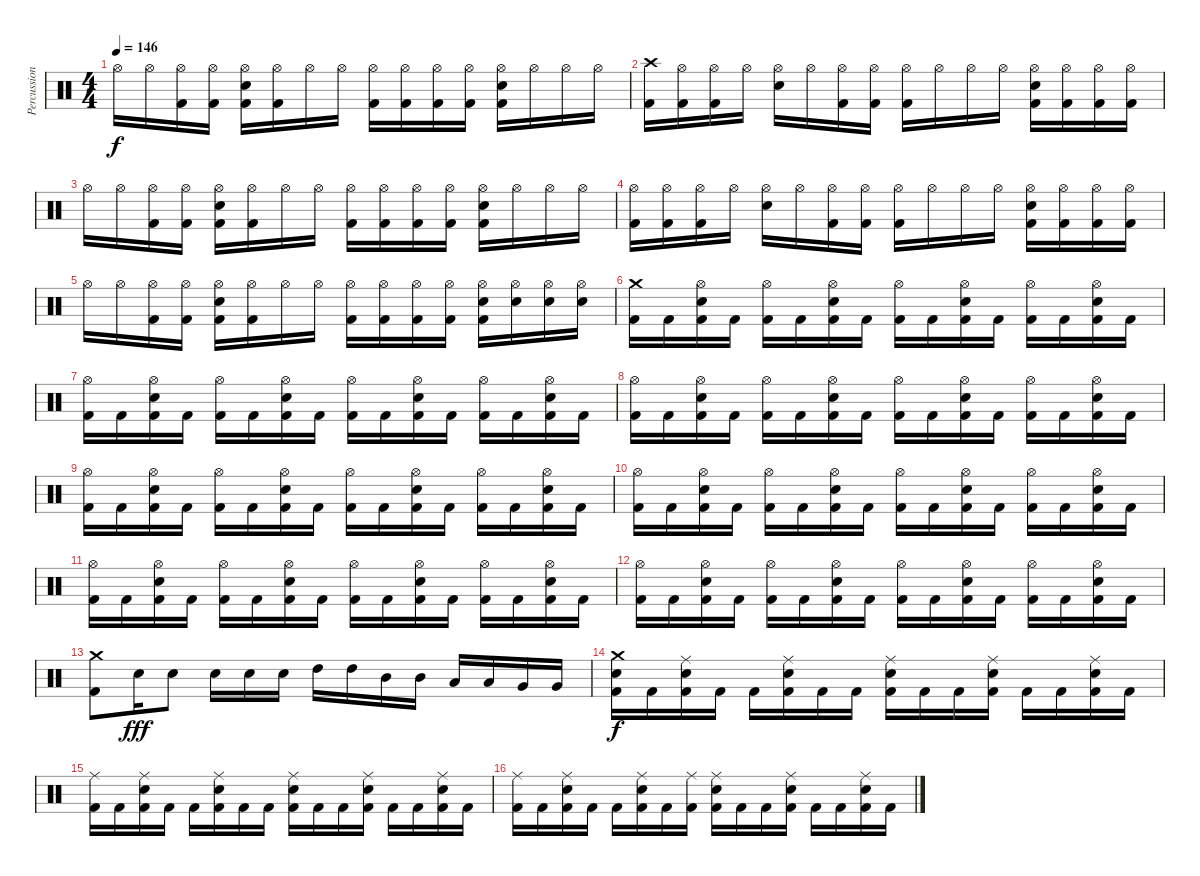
\track ("Percussion" "Percussion") {instrument percussion}
\staff {score}
\articulation defaults
\ts (4 4)
\tempo 146
\clef neutral
\ks c "Hi-Hat (open)".16{dy f} "Hi-Hat (open)".16
("Kick (hit) 2" "Hi-Hat (open)").16 ("Kick (hit) 2" "Hi-Hat (open)").16 ("Kick (hit) 2" "Electric Snare (hit)" "Hi-Hat (open)").16 ("Kick (hit) 2" "Hi-Hat (open)").16 "Hi-Hat (open)".16 "Hi-Hat (open)".16 ("Kick (hit) 2" "Hi-Hat (open)").16 ("Kick (hit) 2" "Hi-Hat (open)").16 ("Kick (hit) 2" "Hi-Hat (open)").16 ("Kick (hit) 2" "Hi-Hat (open)").16 ("Kick (hit) 2" "Electric Snare (hit)" "Hi-Hat (open)").16 "Hi-Hat (open)".16 "Hi-Hat (open)".16 "Hi-Hat (open)".16 |
("Kick (hit) 2" "Crash high (hit)").16 ("Kick (hit) 2" "Hi-Hat (open)").16 ("Kick (hit) 2" "Hi-Hat (open)").16 "Hi-Hat (open)".16 ("Electric Snare (hit)" "Hi-Hat (open)").16 "Hi-Hat (open)".16 ("Kick (hit) 2" "Hi-Hat (open)").16 ("Kick (hit) 2" "Hi-Hat (open)").16 ("Kick (hit) 2" "Hi-Hat (open)").16 "Hi-Hat (open)".16 "Hi-Hat (open)".16 "Hi-Hat (open)".16 ("Kick (hit) 2" "Electric Snare (hit)" "Hi-Hat (open)").16 ("Kick (hit) 2" "Hi-Hat (open)").16 ("Kick (hit) 2" "Hi-Hat (open)").16 ("Kick (hit) 2" "Hi-Hat (open)").16 |
"Hi-Hat (open)".16 "Hi-Hat (open)".16 ("Kick (hit) 2" "Hi-Hat (open)").16 ("Kick (hit) 2" "Hi-Hat (open)").16 ("Kick (hit) 2" "Electric Snare (hit)" "Hi-Hat (open)").16 ("Kick (hit) 2" "Hi-Hat (open)").16 "Hi-Hat (open)".16 "Hi-Hat (open)".16 ("Kick (hit) 2" "Hi-Hat (open)").16 ("Kick (hit) 2" "Hi-Hat (open)").16 ("Kick (hit) 2" "Hi-Hat (open)").16 ("Kick (hit) 2" "Hi-Hat (open)").16 ("Kick (hit) 2" "Electric Snare (hit)" "Hi-Hat (open)").16 "Hi-Hat (open)".16 "Hi-Hat (open)".16 "Hi-Hat (open)".16 |
("Kick (hit) 2" "Hi-Hat (open)").16 ("Kick (hit) 2" "Hi-Hat (open)").16 ("Kick (hit) 2" "Hi-Hat (open)").16 "Hi-Hat (open)".16 ("Electric Snare (hit)" "Hi-Hat (open)").16 "Hi-Hat (open)".16 ("Kick (hit) 2" "Hi-Hat (open)").16 ("Kick (hit) 2" "Hi-Hat (open)").16 ("Kick (hit) 2" "Hi-Hat (open)").16 "Hi-Hat (open)".16 "Hi-Hat (open)".16 "Hi-Hat (open)".16 ("Kick (hit) 2" "Electric Snare (hit)" "Hi-Hat (open)").16 ("Kick (hit) 2" "Hi-Hat (open)").16 ("Kick (hit) 2" "Hi-Hat (open)").16 ("Kick (hit) 2" "Hi-Hat (open)").16 |
"Hi-Hat (open)".16 "Hi-Hat (open)".16 ("Kick (hit) 2" "Hi-Hat (open)").16 ("Kick (hit) 2" "Hi-Hat (open)").16 ("Kick (hit) 2" "Electric Snare (hit)" "Hi-Hat (open)").16 ("Kick (hit) 2" "Hi-Hat (open)").16 "Hi-Hat (open)".16 "Hi-Hat (open)".16 ("Kick (hit) 2" "Hi-Hat (open)").16 ("Kick (hit) 2" "Hi-Hat (open)").16 ("Kick (hit) 2" "Hi-Hat (open)").16 ("Kick (hit) 2" "Hi-Hat (open)").16 ("Kick (hit) 2" "Electric Snare (hit)" "Hi-Hat (open)").16 ("Electric Snare (hit)" "Hi-Hat (open)").16 ("Electric Snare (hit)" "Hi-Hat (open)").16 ("Electric Snare (hit)" "Hi-Hat (open)").16 |
("Kick (hit) 2" "Crash medium (hit)").16 "Kick (hit) 2".16 ("Kick (hit) 2" "Electric Snare (hit)" "Hi-Hat (open)").16 "Kick (hit) 2".16 ("Kick (hit) 2" "Hi-Hat (open)").16 "Kick (hit) 2".16 ("Kick (hit) 2" "Electric Snare (hit)" "Hi-Hat (open)").16 "Kick (hit) 2".16 ("Kick (hit) 2" "Hi-Hat (open)").16 "Kick (hit) 2".16 ("Kick (hit) 2" "Electric Snare (hit)" "Hi-Hat (open)").16 "Kick (hit) 2".16 ("Kick (hit) 2" "Hi-Hat (open)").16 "Kick (hit) 2".16 ("Kick (hit) 2" "Electric Snare (hit)" "Hi-Hat (open)").16 "Kick (hit) 2".16 |
("Kick (hit) 2" "Hi-Hat (open)").16 "Kick (hit) 2".16 ("Kick (hit) 2" "Electric Snare (hit)" "Hi-Hat (open)").16 "Kick (hit) 2".16 ("Kick (hit) 2" "Hi-Hat (open)").16 "Kick (hit) 2".16 ("Kick (hit) 2" "Electric Snare (hit)" "Hi-Hat (open)").16 "Kick (hit) 2".16 ("Kick (hit) 2" "Hi-Hat (open)").16 "Kick (hit) 2".16 ("Kick (hit) 2" "Electric Snare (hit)" "Hi-Hat (open)").16 "Kick (hit) 2".16 ("Kick (hit) 2" "Hi-Hat (open)").16 "Kick (hit) 2".16 ("Kick (hit) 2" "Electric Snare (hit)" "Hi-Hat (open)").16 "Kick (hit) 2".16 |
("Kick (hit) 2" "Hi-Hat (open)").16 "Kick (hit) 2".16 ("Kick (hit) 2" "Electric Snare (hit)" "Hi-Hat (open)").16 "Kick (hit) 2".16 ("Kick (hit) 2" "Hi-Hat (open)").16 "Kick (hit) 2".16 ("Kick (hit) 2" "Electric Snare (hit)" "Hi-Hat (open)").16 "Kick (hit) 2".16 ("Kick (hit) 2" "Hi-Hat (open)").16 "Kick (hit) 2".16 ("Kick (hit) 2" "Electric Snare (hit)" "Hi-Hat (open)").16 "Kick (hit) 2".16 ("Kick (hit) 2" "Hi-Hat (open)").16 "Kick (hit) 2".16 ("Kick (hit) 2" "Electric Snare (hit)" "Hi-Hat (open)").16 "Kick (hit) 2".16 |
("Kick (hit) 2" "Hi-Hat (open)").16 "Kick (hit) 2".16 ("Kick (hit) 2" "Electric Snare (hit)" "Hi-Hat (open)").16 "Kick (hit) 2".16 ("Kick (hit) 2" "Hi-Hat (open)").16 "Kick (hit) 2".16 ("Kick (hit) 2" "Electric Snare (hit)" "Hi-Hat (open)").16 "Kick (hit) 2".16 ("Kick (hit) 2" "Hi-Hat (open)").16 "Kick (hit) 2".16 ("Kick (hit) 2" "Electric Snare (hit)" "Hi-Hat (open)").16 "Kick (hit) 2".16 ("Kick (hit) 2" "Hi-Hat (open)").16 "Kick (hit) 2".16 ("Kick (hit) 2" "Electric Snare (hit)" "Hi-Hat (open)").16 "Kick (hit) 2".16 |
("Kick (hit) 2" "Hi-Hat (open)").16 "Kick (hit) 2".16 ("Kick (hit) 2" "Electric Snare (hit)" "Hi-Hat (open)").16 "Kick (hit) 2".16 ("Kick (hit) 2" "Hi-Hat (open)").16 "Kick (hit) 2".16 ("Kick (hit) 2" "Electric Snare (hit)" "Hi-Hat (open)").16 "Kick (hit) 2".16 ("Kick (hit) 2" "Hi-Hat (open)").16 "Kick (hit) 2".16 ("Kick (hit) 2" "Electric Snare (hit)" "Hi-Hat (open)").16 "Kick (hit) 2".16 ("Kick (hit) 2" "Hi-Hat (open)").16 "Kick (hit) 2".16 ("Kick (hit) 2" "Electric Snare (hit)" "Hi-Hat (open)").16 "Kick (hit) 2".16 |
("Kick (hit) 2" "Hi-Hat (open)").16 "Kick (hit) 2".16 ("Kick (hit) 2" "Electric Snare (hit)" "Hi-Hat (open)").16 "Kick (hit) 2".16 ("Kick (hit) 2" "Hi-Hat (open)").16 "Kick (hit) 2".16 ("Kick (hit) 2" "Electric Snare (hit)" "Hi-Hat (open)").16 "Kick (hit) 2".16 ("Kick (hit) 2" "Hi-Hat (open)").16 "Kick (hit) 2".16 ("Kick (hit) 2" "Electric Snare (hit)" "Hi-Hat (open)").16 "Kick (hit) 2".16 ("Kick (hit) 2" "Hi-Hat (open)").16 "Kick (hit) 2".16 ("Kick (hit) 2" "Electric Snare (hit)" "Hi-Hat (open)").16 "Kick (hit) 2".16 |
("Kick (hit) 2" "Hi-Hat (open)").16 "Kick (hit) 2".16 ("Kick (hit) 2" "Electric Snare (hit)" "Hi-Hat (open)").16 "Kick (hit) 2".16 ("Kick (hit) 2" "Hi-Hat (open)").16 "Kick (hit) 2".16 ("Kick (hit) 2" "Electric Snare (hit)" "Hi-Hat (open)").16 "Kick (hit) 2".16 ("Kick (hit) 2" "Hi-Hat (open)").16 "Kick (hit) 2".16 ("Kick (hit) 2" "Electric Snare (hit)" "Hi-Hat (open)").16 "Kick (hit) 2".16 ("Kick (hit) 2" "Hi-Hat (open)").16 "Kick (hit) 2".16 ("Kick (hit) 2" "Electric Snare (hit)" "Hi-Hat (open)").16 "Kick (hit) 2".16 |
("Kick (hit) 2" "Crash medium (hit)").8 "Electric Snare (hit)".16{dy fff} "Electric Snare (hit)".8 "Electric Snare (hit)".16 "Electric Snare (hit)".16 "Electric Snare (hit)".16 "High Tom (hit)".16 "High Tom (hit)".16 "Mid Tom (hit)".16 "Mid Tom (hit)".16 "Low Tom (hit)".16 "Low Tom (hit)".16 "Very Low Tom (hit)".16 "Very Low Tom (hit)".16 |
("Kick (hit) 2" "Electric Snare (hit)" "Crash medium (hit)").16{dy f} "Kick (hit) 2".16 ("Kick (hit) 2" "Electric Snare (hit)" "Ride (middle)").16 "Kick (hit) 2".16 "Kick (hit) 2".16 ("Kick (hit) 2" "Electric Snare (hit)" "Ride (middle)").16 "Kick (hit) 2".16 "Kick (hit) 2".16 ("Kick (hit) 2" "Electric Snare (hit)" "Ride (middle)").16 "Kick (hit) 2".16 "Kick (hit) 2".16 ("Kick (hit) 2" "Electric Snare (hit)" "Ride (middle)").16 "Kick (hit) 2".16 "Kick (hit) 2".16 ("Kick (hit) 2" "Electric Snare (hit)" "Ride (middle)").16 "Kick (hit) 2".16 |
("Kick (hit) 2" "Ride (middle)").16 "Kick (hit) 2".16 ("Kick (hit) 2" "Electric Snare (hit)" "Ride (middle)").16 "Kick (hit) 2".16 "Kick (hit) 2".16 ("Kick (hit) 2" "Electric Snare (hit)" "Ride (middle)").16 "Kick (hit) 2".16 "Kick (hit) 2".16 ("Kick (hit) 2" "Electric Snare (hit)" "Ride (middle)").16 "Kick (hit) 2".16 "Kick (hit) 2".16 ("Kick (hit) 2" "Electric Snare (hit)" "Ride (middle)").16 "Kick (hit) 2".16 "Kick (hit) 2".16 ("Kick (hit) 2" "Electric Snare (hit)" "Ride (middle)").16 "Kick (hit) 2".16 |
("Kick (hit) 2" "Ride (middle)").16 "Kick (hit) 2".16 ("Kick (hit) 2" "Electric Snare (hit)" "Ride (middle)").16 "Kick (hit) 2".16 "Kick (hit) 2".16 ("Kick (hit) 2" "Electric Snare (hit)" "Ride (middle)").16 "Kick (hit) 2".16 ("Kick (hit) 2" "Ride (middle)").16 ("Kick (hit) 2" "Electric Snare (hit)" "Ride (middle)").16 "Kick (hit) 2".16 "Kick (hit) 2".16 ("Kick (hit) 2" "Electric Snare (hit)" "Ride (middle)").16 "Kick (hit) 2".16 "Kick (hit) 2".16 ("Kick (hit) 2" "Electric Snare (hit)" "Ride (middle)").16 "Kick (hit) 2".16
